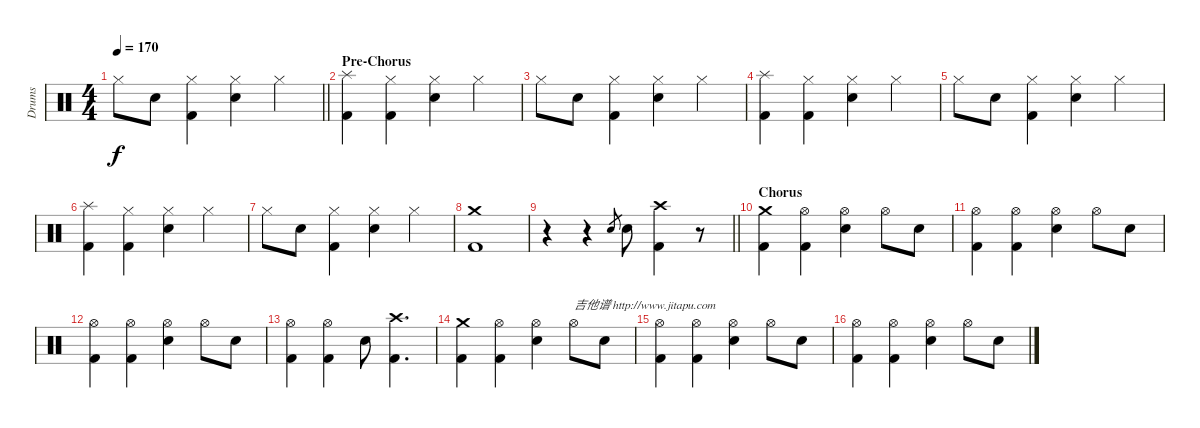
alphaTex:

\track ("Drums" "Drums") {instrument percussion}
\staff {score}
\articulation defaults
\ts (4 4)
\tempo 170
\clef neutral
\barLineRight lightlight
\ks c "Hi-Hat (closed)".8{dy f} "Electric Snare (hit)".8
("Hi-Hat (closed)" "Kick (hit) 2").4 ("Hi-Hat (closed)" "Electric Snare (hit)").4 "Hi-Hat (closed)".4 |
\section ("" "Pre-Chorus")
("Splash (hit)" "Kick (hit) 2").4 ("Hi-Hat (closed)" "Kick (hit) 2").4 ("Hi-Hat (closed)" "Electric Snare (hit)").4 "Hi-Hat (closed)".4 |
"Hi-Hat (closed)".8 "Electric Snare (hit)".8 ("Hi-Hat (closed)" "Kick (hit) 2").4 ("Hi-Hat (closed)" "Electric Snare (hit)").4 "Hi-Hat (closed)".4 |
("Splash (hit)" "Kick (hit) 2").4 ("Hi-Hat (closed)" "Kick (hit) 2").4 ("Hi-Hat (closed)" "Electric Snare (hit)").4 "Hi-Hat (closed)".4 |
"Hi-Hat (closed)".8 "Electric Snare (hit)".8 ("Hi-Hat (closed)" "Kick (hit) 2").4 ("Hi-Hat (closed)" "Electric Snare (hit)").4 "Hi-Hat (closed)".4 |
("Splash (hit)" "Kick (hit) 2").4 ("Hi-Hat (closed)" "Kick (hit) 2").4 ("Hi-Hat (closed)" "Electric Snare (hit)").4 "Hi-Hat (closed)".4 |
"Hi-Hat (closed)".8 "Electric Snare (hit)".8 ("Hi-Hat (closed)" "Kick (hit) 2").4 ("Hi-Hat (closed)" "Electric Snare (hit)").4 "Hi-Hat (closed)".4 |
("Crash medium (hit)" "Kick (hit) 2").1 |
\barLineRight lightlight
r.4 r.4 "Electric Snare (hit)".8{gr} "Electric Snare (hit)".8 ("Crash high (hit)" "Kick (hit) 2").4 r.8 |
\section ("" "Chorus")
("Crash medium (hit)" "Kick (hit) 2").4 ("Hi-Hat (open)" "Kick (hit) 2").4 ("Hi-Hat (open)" "Electric Snare (hit)").4 "Hi-Hat (open)".8 "Electric Snare (hit)".8 |
("Hi-Hat (open)" "Kick (hit) 2").4 ("Hi-Hat (open)" "Kick (hit) 2").4 ("Hi-Hat (open)" "Electric Snare (hit)").4 "Hi-Hat (open)".8 "Electric Snare (hit)".8 |
("Hi-Hat (open)" "Kick (hit) 2").4 ("Hi-Hat (open)" "Kick (hit) 2").4 ("Hi-Hat (open)" "Electric Snare (hit)").4 "Hi-Hat (open)".8 "Electric Snare (hit)".8 |
("Hi-Hat (open)" "Kick (hit) 2").4 ("Hi-Hat (open)" "Kick (hit) 2").4 "Electric Snare (hit)".8 ("Crash high (hit)" "Kick (hit) 2").4{d} |
("Crash medium (hit)" "Kick (hit) 2").4 ("Hi-Hat (open)" "Kick (hit) 2").4 ("Hi-Hat (open)" "Electric Snare (hit)").4 "Hi-Hat (open)".8{txt "吉他谱 http://www.jitapu.com"} "Electric Snare (hit)".8 |
("Hi-Hat (open)" "Kick (hit) 2").4 ("Hi-Hat (open)" "Kick (hit) 2").4 ("Hi-Hat (open)" "Electric Snare (hit)").4 "Hi-Hat (open)".8 "Electric Snare (hit)".8 |
("Hi-Hat (open)" "Kick (hit) 2").4 ("Hi-Hat (open)" "Kick (hit) 2").4 ("Hi-Hat (open)" "Electric Snare (hit)").4 "Hi-Hat (open)".8 "Electric Snare (hit)".8
